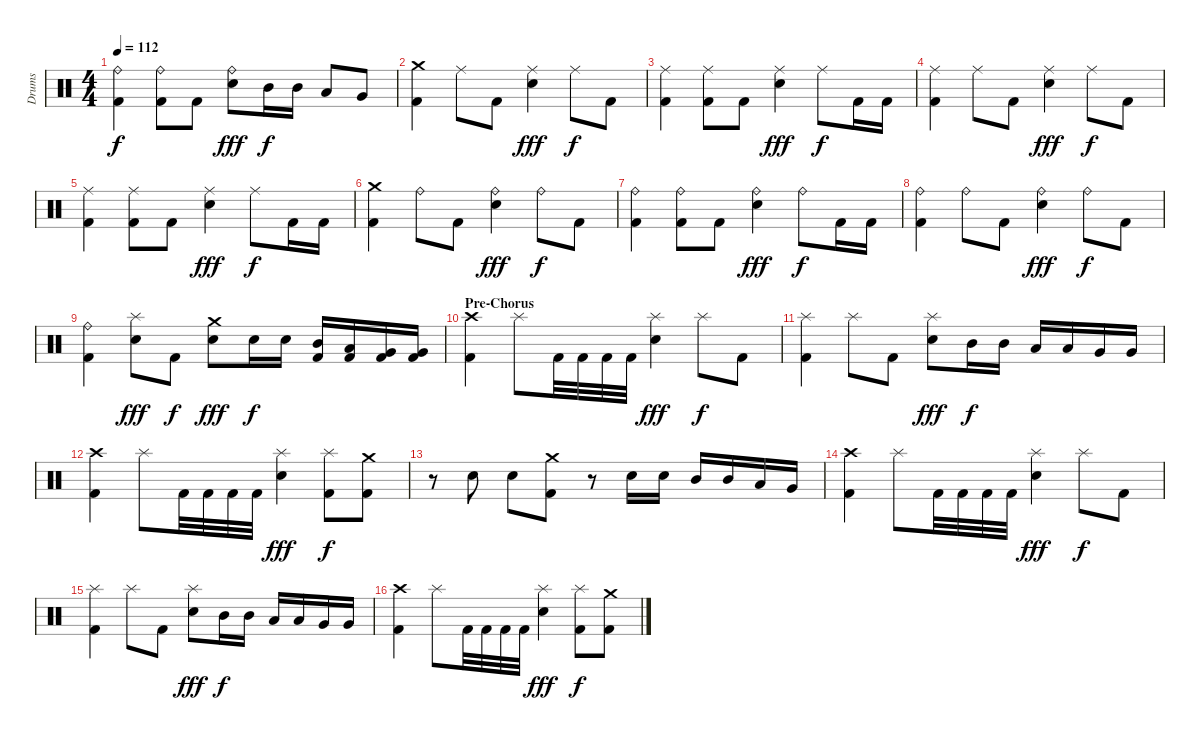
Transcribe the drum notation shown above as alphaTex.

\track ("Drums" "Drums") {instrument percussion}
\staff {score}
\articulation defaults
\ts (4 4)
\tempo 112
\clef neutral
\ks c
("Ride (bell)" "Kick (hit) 2").4{dy f} ("Ride (bell)" "Kick (hit) 2").8 "Kick (hit) 2".8 ("Ride (bell)" "Snare (hit) 2").8{dy fff} "Mid Tom (hit)".16{dy f} "Mid Tom (hit)".16 "Low Tom (hit)".8 "Very Low Tom (hit)".8 |
("Crash medium (hit)" "Kick (hit) 2").4 "Ride (middle)".8 "Kick (hit) 2".8 ("Ride (middle)" "Snare (hit) 2").4{dy fff} "Ride (middle)".8{dy f} "Kick (hit) 2".8 |
("Ride (middle)" "Kick (hit) 2").4 ("Ride (middle)" "Kick (hit) 2").8 "Kick (hit) 2".8 ("Ride (middle)" "Snare (hit) 2").4{dy fff} "Ride (middle)".8{dy f} "Kick (hit) 2".16 "Kick (hit) 2".16 |
("Ride (middle)" "Kick (hit) 2").4 "Ride (middle)".8 "Kick (hit) 2".8 ("Ride (middle)" "Snare (hit) 2").4{dy fff} "Ride (middle)".8{dy f} "Kick (hit) 2".8 |
("Ride (middle)" "Kick (hit) 2").4 ("Ride (middle)" "Kick (hit) 2").8 "Kick (hit) 2".8 ("Ride (middle)" "Snare (hit) 2").4{dy fff} "Ride (middle)".8{dy f} "Kick (hit) 2".16 "Kick (hit) 2".16 |
("Crash medium (hit)" "Kick (hit) 2").4 "Ride (bell)".8 "Kick (hit) 2".8 ("Ride (bell)" "Snare (hit) 2").4{dy fff} "Ride (bell)".8{dy f} "Kick (hit) 2".8 |
("Ride (bell)" "Kick (hit) 2").4 ("Ride (bell)" "Kick (hit) 2").8 "Kick (hit) 2".8 ("Ride (bell)" "Snare (hit) 2").4{dy fff} "Ride (bell)".8{dy f} "Kick (hit) 2".16 "Kick (hit) 2".16 |
("Ride (bell)" "Kick (hit) 2").4 "Ride (bell)".8 "Kick (hit) 2".8 ("Ride (bell)" "Snare (hit) 2").4{dy fff} "Ride (bell)".8{dy f} "Kick (hit) 2".8 |
("Ride (bell)" "Kick (hit) 2").4 ("Splash (hit)" "Snare (hit) 2").8{dy fff} "Kick (hit) 2".8{dy f} ("Crash medium (hit)" "Snare (hit) 2").8{dy fff} "Snare (hit) 2".16{dy f} "Snare (hit) 2".16 ("Mid Tom (hit)" "Kick (hit) 2").16 ("Low Tom (hit)" "Kick (hit) 2").16 ("Very Low Tom (hit)" "Kick (hit) 2").16 ("Very Low Tom (hit)" "Kick (hit) 2").16 |
\section ("" "Pre-Chorus")
("Crash high (hit)" "Kick (hit) 2").4 "Splash (hit)".8 "Kick (hit) 2".32 "Kick (hit) 2".32 "Kick (hit) 2".32 "Kick (hit) 2".32 ("Splash (hit)" "Snare (hit) 2").4{dy fff} "Splash (hit)".8{dy f} "Kick (hit) 2".8 |
("Splash (hit)" "Kick (hit) 2").4 "Splash (hit)".8 "Kick (hit) 2".8 ("Splash (hit)" "Snare (hit) 2").8{dy fff} "Mid Tom (hit)".16{dy f} "Mid Tom (hit)".16 "Low Tom (hit)".16 "Low Tom (hit)".16 "Very Low Tom (hit)".16 "Very Low Tom (hit)".16 |
("Crash high (hit)" "Kick (hit) 2").4 "Splash (hit)".8 "Kick (hit) 2".32 "Kick (hit) 2".32 "Kick (hit) 2".32 "Kick (hit) 2".32 ("Splash (hit)" "Snare (hit) 2").4{dy fff} ("Splash (hit)" "Kick (hit) 2").8{dy f} ("Crash medium (hit)" "Kick (hit) 2").8 |
r.8 "Snare (hit) 2".8 "Snare (hit) 2".8 ("Crash medium (hit)" "Kick (hit) 2").8 r.8 "Snare (hit) 2".16 "Snare (hit) 2".16 "Mid Tom (hit)".16 "Mid Tom (hit)".16 "Low Tom (hit)".16 "Very Low Tom (hit)".16 |
("Crash high (hit)" "Kick (hit) 2").4 "Splash (hit)".8 "Kick (hit) 2".32 "Kick (hit) 2".32 "Kick (hit) 2".32 "Kick (hit) 2".32 ("Splash (hit)" "Snare (hit) 2").4{dy fff} "Splash (hit)".8{dy f} "Kick (hit) 2".8 |
("Splash (hit)" "Kick (hit) 2").4 "Splash (hit)".8 "Kick (hit) 2".8 ("Splash (hit)" "Snare (hit) 2").8{dy fff} "Mid Tom (hit)".16{dy f} "Mid Tom (hit)".16 "Low Tom (hit)".16 "Low Tom (hit)".16 "Very Low Tom (hit)".16 "Very Low Tom (hit)".16 |
("Crash high (hit)" "Kick (hit) 2").4 "Splash (hit)".8 "Kick (hit) 2".32 "Kick (hit) 2".32 "Kick (hit) 2".32 "Kick (hit) 2".32 ("Splash (hit)" "Snare (hit) 2").4{dy fff} ("Splash (hit)" "Kick (hit) 2").8{dy f} ("Crash medium (hit)" "Kick (hit) 2").8
